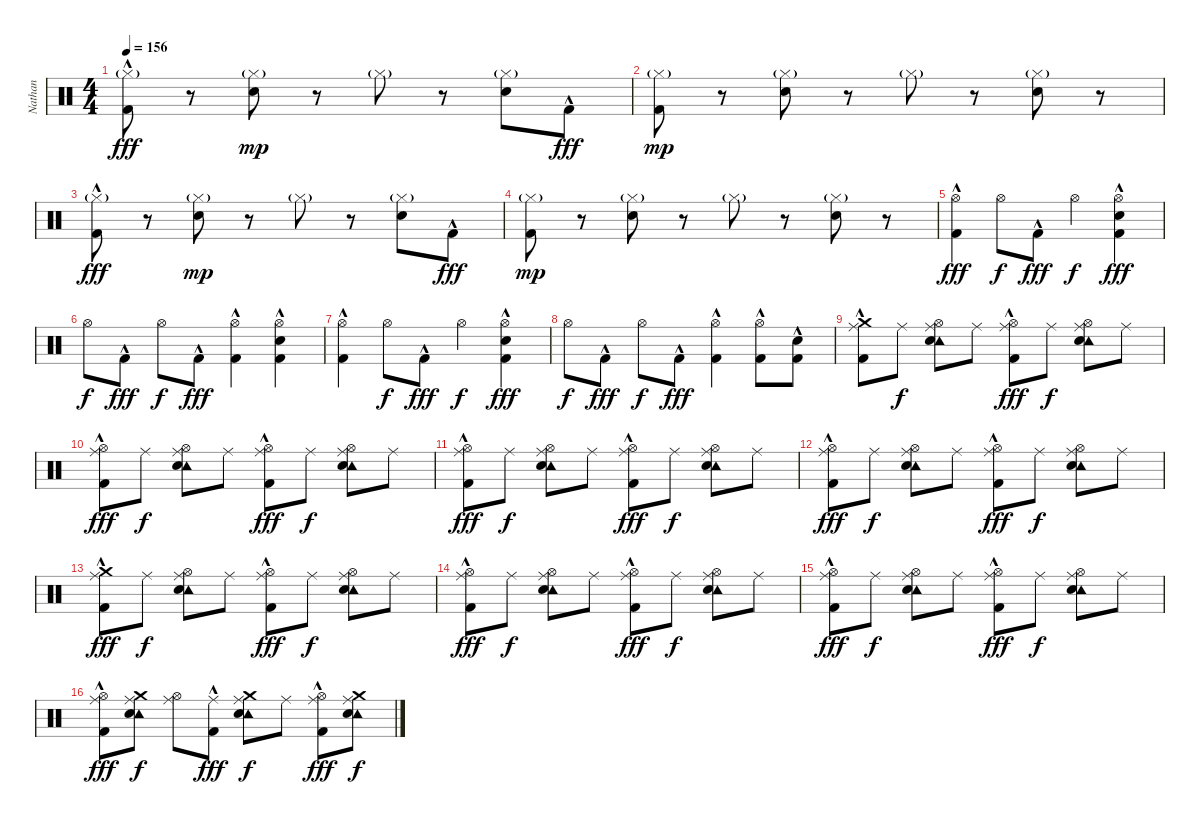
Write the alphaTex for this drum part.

\track ("Nathan" "Nathan") {instrument percussion}
\staff {score}
\articulation defaults
\ts (4 4)
\tempo 156
\clef neutral
\ks c
("Hi-Hat (closed)"{g} "Kick (hit) 2"{hac}).8{dy fff} r.8 ("Hi-Hat (closed)"{g} "Snare (hit) 2").8{dy mp} r.8 "Hi-Hat (closed)"{g}.8 r.8 ("Hi-Hat (closed)"{g} "Snare (hit) 2").8 "Kick (hit) 2"{hac}.8{dy fff} |
("Hi-Hat (closed)"{g} "Kick (hit) 2").8{dy mp} r.8 ("Hi-Hat (closed)"{g} "Snare (hit) 2").8 r.8 "Hi-Hat (closed)"{g}.8 r.8 ("Hi-Hat (closed)"{g} "Snare (hit) 2").8 r.8 |
("Hi-Hat (closed)"{g} "Kick (hit) 2"{hac}).8{dy fff} r.8 ("Hi-Hat (closed)"{g} "Snare (hit) 2").8{dy mp} r.8 "Hi-Hat (closed)"{g}.8 r.8 ("Hi-Hat (closed)"{g} "Snare (hit) 2").8 "Kick (hit) 2"{hac}.8{dy fff} |
("Hi-Hat (closed)"{g} "Kick (hit) 2").8{dy mp} r.8 ("Hi-Hat (closed)"{g} "Snare (hit) 2").8 r.8 "Hi-Hat (closed)"{g}.8 r.8 ("Hi-Hat (closed)"{g} "Snare (hit) 2").8 r.8 |
("Hi-Hat (open)" "Kick (hit) 2"{hac}).4{dy fff} "Hi-Hat (open)".8{dy f} "Kick (hit) 2"{hac}.8{dy fff} "Hi-Hat (open)".4{dy f} ("Hi-Hat (open)" "Snare (hit) 2"{hac} "Kick (hit) 2"{hac}).4{dy fff} |
"Hi-Hat (open)".8{dy f} "Kick (hit) 2"{hac}.8{dy fff} "Hi-Hat (open)".8{dy f} "Kick (hit) 2"{hac}.8{dy fff} ("Hi-Hat (open)" "Kick (hit) 2"{hac}).4 ("Hi-Hat (open)" "Snare (hit) 2"{hac} "Kick (hit) 2"{hac}).4 |
("Hi-Hat (open)" "Kick (hit) 2"{hac}).4 "Hi-Hat (open)".8{dy f} "Kick (hit) 2"{hac}.8{dy fff} "Hi-Hat (open)".4{dy f} ("Hi-Hat (open)" "Snare (hit) 2"{hac} "Kick (hit) 2"{hac}).4{dy fff} |
"Hi-Hat (open)".8{dy f} "Kick (hit) 2"{hac}.8{dy fff} "Hi-Hat (open)".8{dy f} "Kick (hit) 2"{hac}.8{dy fff} ("Hi-Hat (open)" "Kick (hit) 2"{hac}).4 ("Hi-Hat (open)" "Kick (hit) 2"{hac}).8 ("Snare (hit) 2"{hac} "Kick (hit) 2"{hac}).8 |
("Crash medium (hit)" "Ride (middle)" "Kick (hit) 2"{hac}).8 "Ride (middle)".8{dy f} ("Hi-Hat (open)" "Ride (middle)" "Tambourine (hit)" "Snare (hit) 2").8 "Ride (middle)".8 ("Hi-Hat (open)" "Ride (middle)" "Kick (hit) 2"{hac}).8{dy fff} "Ride (middle)".8{dy f} ("Hi-Hat (open)" "Ride (middle)" "Tambourine (hit)" "Snare (hit) 2").8 "Ride (middle)".8 |
("Hi-Hat (open)" "Ride (middle)" "Kick (hit) 2"{hac}).8{dy fff} "Ride (middle)".8{dy f} ("Hi-Hat (open)" "Ride (middle)" "Tambourine (hit)" "Snare (hit) 2").8 "Ride (middle)".8 ("Hi-Hat (open)" "Ride (middle)" "Kick (hit) 2"{hac}).8{dy fff} "Ride (middle)".8{dy f} ("Hi-Hat (open)" "Ride (middle)" "Tambourine (hit)" "Snare (hit) 2").8 "Ride (middle)".8 |
("Hi-Hat (open)" "Ride (middle)" "Kick (hit) 2"{hac}).8{dy fff} "Ride (middle)".8{dy f} ("Hi-Hat (open)" "Ride (middle)" "Tambourine (hit)" "Snare (hit) 2").8 "Ride (middle)".8 ("Hi-Hat (open)" "Ride (middle)" "Kick (hit) 2"{hac}).8{dy fff} "Ride (middle)".8{dy f} ("Hi-Hat (open)" "Ride (middle)" "Tambourine (hit)" "Snare (hit) 2").8 "Ride (middle)".8 |
("Hi-Hat (open)" "Ride (middle)" "Kick (hit) 2"{hac}).8{dy fff} "Ride (middle)".8{dy f} ("Hi-Hat (open)" "Ride (middle)" "Tambourine (hit)" "Snare (hit) 2").8 "Ride (middle)".8 ("Hi-Hat (open)" "Ride (middle)" "Kick (hit) 2"{hac}).8{dy fff} "Ride (middle)".8{dy f} ("Hi-Hat (open)" "Ride (middle)" "Tambourine (hit)" "Snare (hit) 2").8 "Ride (middle)".8 |
("Crash medium (hit)" "Ride (middle)" "Kick (hit) 2"{hac}).8{dy fff} "Ride (middle)".8{dy f} ("Hi-Hat (open)" "Ride (middle)" "Tambourine (hit)" "Snare (hit) 2").8 "Ride (middle)".8 ("Hi-Hat (open)" "Ride (middle)" "Kick (hit) 2"{hac}).8{dy fff} "Ride (middle)".8{dy f} ("Hi-Hat (open)" "Ride (middle)" "Tambourine (hit)" "Snare (hit) 2").8 "Ride (middle)".8 |
("Hi-Hat (open)" "Ride (middle)" "Kick (hit) 2"{hac}).8{dy fff} "Ride (middle)".8{dy f} ("Hi-Hat (open)" "Ride (middle)" "Tambourine (hit)" "Snare (hit) 2").8 "Ride (middle)".8 ("Hi-Hat (open)" "Ride (middle)" "Kick (hit) 2"{hac}).8{dy fff} "Ride (middle)".8{dy f} ("Hi-Hat (open)" "Ride (middle)" "Tambourine (hit)" "Snare (hit) 2").8 "Ride (middle)".8 |
("Hi-Hat (open)" "Ride (middle)" "Kick (hit) 2"{hac}).8{dy fff} "Ride (middle)".8{dy f} ("Hi-Hat (open)" "Ride (middle)" "Tambourine (hit)" "Snare (hit) 2").8 "Ride (middle)".8 ("Hi-Hat (open)" "Ride (middle)" "Kick (hit) 2"{hac}).8{dy fff} "Ride (middle)".8{dy f} ("Hi-Hat (open)" "Ride (middle)" "Tambourine (hit)" "Snare (hit) 2").8 "Ride (middle)".8 |
("Hi-Hat (open)" "Ride (middle)" "Kick (hit) 2"{hac}).8{dy fff} ("Crash medium (hit)" "Ride (middle)" "Tambourine (hit)" "Snare (hit) 2").8{dy f} ("Hi-Hat (open)" "Ride (middle)").8 ("Ride (middle)" "Kick (hit) 2"{hac}).8{dy fff} ("Crash medium (hit)" "Ride (middle)" "Tambourine (hit)" "Snare (hit) 2").8{dy f} "Ride (middle)".8 ("Hi-Hat (open)" "Ride (middle)" "Kick (hit) 2"{hac}).8{dy fff} ("Crash medium (hit)" "Ride (middle)" "Tambourine (hit)" "Snare (hit) 2").8{dy f}
